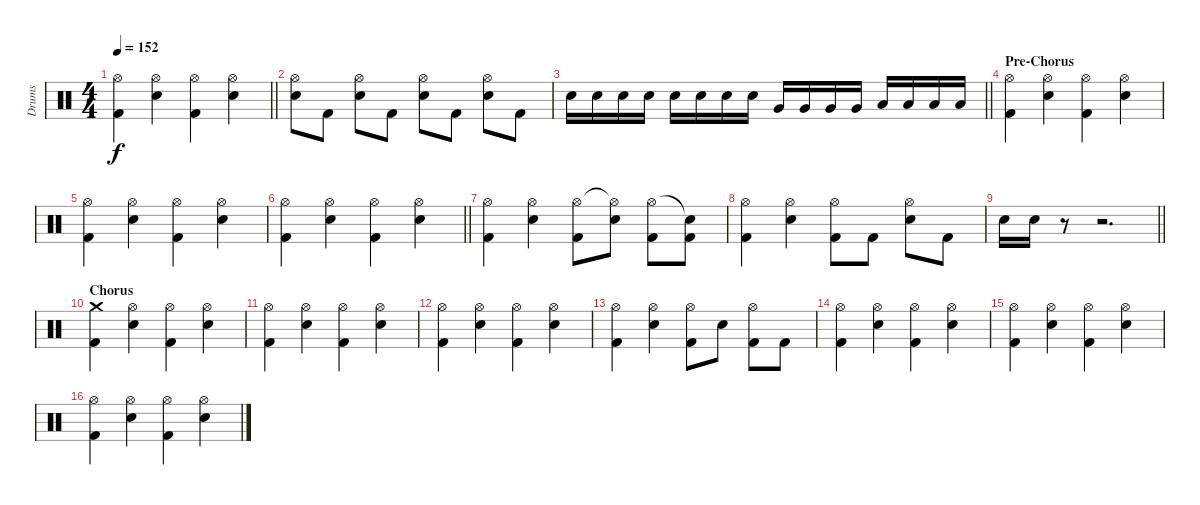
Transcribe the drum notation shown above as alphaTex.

\track ("Drums" "Drums") {instrument percussion}
\staff {score}
\articulation defaults
\ts (4 4)
\tempo 152
\clef neutral
\barLineRight lightlight
\ks c
("Hi-Hat (open)" "Kick (hit) 2").4{dy f} ("Hi-Hat (open)" "Electric Snare (hit)").4 ("Hi-Hat (open)" "Kick (hit) 2").4 ("Hi-Hat (open)" "Electric Snare (hit)").4 |
("Hi-Hat (open)" "Electric Snare (hit)").8 "Kick (hit) 2".8 ("Hi-Hat (open)" "Electric Snare (hit)").8 "Kick (hit) 2".8 ("Hi-Hat (open)" "Electric Snare (hit)").8 "Kick (hit) 2".8 ("Hi-Hat (open)" "Electric Snare (hit)").8 "Kick (hit) 2".8 |
\barLineRight lightlight "Electric Snare (hit)".16 "Electric Snare (hit)".16 "Electric Snare (hit)".16 "Electric Snare (hit)".16 "Electric Snare (hit)".16 "Electric Snare (hit)".16 "Electric Snare (hit)".16 "Electric Snare (hit)".16 "Very Low Tom (hit)".16 "Very Low Tom (hit)".16 "Very Low Tom (hit)".16 "Very Low Tom (hit)".16 "Low Floor Tom (hit)".16 "Low Floor Tom (hit)".16 "Low Floor Tom (hit)".16 "Low Floor Tom (hit)".16
|
\section ("" "Pre-Chorus")
("Hi-Hat (open)" "Kick (hit) 2").4 ("Hi-Hat (open)" "Electric Snare (hit)").4 ("Hi-Hat (open)" "Kick (hit) 2").4 ("Hi-Hat (open)" "Electric Snare (hit)").4 |
("Hi-Hat (open)" "Kick (hit) 2").4 ("Hi-Hat (open)" "Electric Snare (hit)").4 ("Hi-Hat (open)" "Kick (hit) 2").4 ("Hi-Hat (open)" "Electric Snare (hit)").4 |
\barLineRight lightlight
("Hi-Hat (open)" "Kick (hit) 2").4 ("Hi-Hat (open)" "Electric Snare (hit)").4 ("Hi-Hat (open)" "Kick (hit) 2").4 ("Hi-Hat (open)" "Electric Snare (hit)").4 |
("Hi-Hat (open)" "Kick (hit) 2").4 ("Hi-Hat (open)" "Electric Snare (hit)").4 ("Hi-Hat (open)" "Kick (hit) 2").8 ("Hi-Hat (open)"{t} "Electric Snare (hit)").8 ("Hi-Hat (open)" "Kick (hit) 2").8 ("Snare (hit)"{t} "Kick (hit) 2").8 |
("Hi-Hat (open)" "Kick (hit) 2").4 ("Hi-Hat (open)" "Electric Snare (hit)").4 ("Hi-Hat (open)" "Kick (hit) 2").8 "Kick (hit) 2".8 ("Hi-Hat (open)" "Electric Snare (hit)").8 "Kick (hit) 2".8 |
\barLineRight lightlight "Electric Snare (hit)".16 "Electric Snare (hit)".16
r.8 r.2{d} |
\section ("" "Chorus")
("Crash medium (hit)" "Kick (hit) 2").4 ("Hi-Hat (open)" "Electric Snare (hit)").4 ("Hi-Hat (open)" "Kick (hit) 2").4 ("Hi-Hat (open)" "Electric Snare (hit)").4 |
("Hi-Hat (open)" "Kick (hit) 2").4 ("Hi-Hat (open)" "Electric Snare (hit)").4 ("Hi-Hat (open)" "Kick (hit) 2").4 ("Hi-Hat (open)" "Electric Snare (hit)").4 |
("Hi-Hat (open)" "Kick (hit) 2").4 ("Hi-Hat (open)" "Electric Snare (hit)").4 ("Hi-Hat (open)" "Kick (hit) 2").4 ("Hi-Hat (open)" "Electric Snare (hit)").4 |
("Hi-Hat (open)" "Kick (hit) 2").4 ("Hi-Hat (open)" "Electric Snare (hit)").4 ("Hi-Hat (open)" "Kick (hit) 2").8 "Electric Snare (hit)".8 ("Hi-Hat (open)" "Kick (hit) 2").8 "Kick (hit) 2".8 |
("Hi-Hat (open)" "Kick (hit) 2").4 ("Hi-Hat (open)" "Electric Snare (hit)").4 ("Hi-Hat (open)" "Kick (hit) 2").4 ("Hi-Hat (open)" "Electric Snare (hit)").4 |
("Hi-Hat (open)" "Kick (hit) 2").4 ("Hi-Hat (open)" "Electric Snare (hit)").4 ("Hi-Hat (open)" "Kick (hit) 2").4 ("Hi-Hat (open)" "Electric Snare (hit)").4 |
("Hi-Hat (open)" "Kick (hit) 2").4 ("Hi-Hat (open)" "Electric Snare (hit)").4 ("Hi-Hat (open)" "Kick (hit) 2").4 ("Hi-Hat (open)" "Electric Snare (hit)").4
